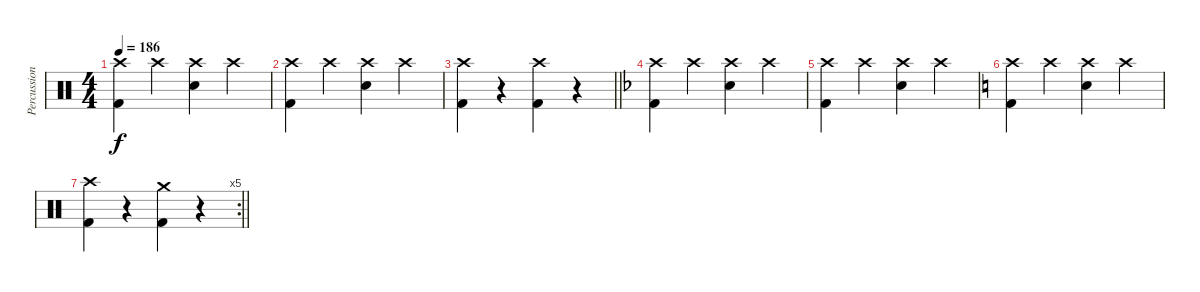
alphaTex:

\track ("Percussion" "Percussion") {instrument percussion}
\staff {score}
\articulation defaults
\ts (4 4)
\tempo 186
\clef neutral
\ks c
("Crash high (hit)" "Kick (hit) 2").4{dy f} "Crash high (hit)".4 ("Crash high (hit)" "Snare (hit) 2").4 "Crash high (hit)".4 |
("Crash high (hit)" "Kick (hit) 2").4 "Crash high (hit)".4 ("Crash high (hit)" "Snare (hit) 2").4 "Crash high (hit)".4 |
\barLineRight lightlight
("Crash high (hit)" "Kick (hit) 2").4 r.4 ("Crash high (hit)" "Kick (hit) 2").4 r.4 |
\ks f
("Crash high (hit)" "Kick (hit) 2").4 "Crash high (hit)".4 ("Crash high (hit)" "Snare (hit) 2").4 "Crash high (hit)".4 |
("Crash high (hit)" "Kick (hit) 2").4 "Crash high (hit)".4 ("Crash high (hit)" "Snare (hit) 2").4 "Crash high (hit)".4 |
\ks c
("Crash high (hit)" "Kick (hit) 2").4 "Crash high (hit)".4 ("Crash high (hit)" "Snare (hit) 2").4 "Crash high (hit)".4 |
\rc 5
\barLineRight lightlight
("Crash high (hit)" "Kick (hit) 2").4 r.4 ("Crash medium (hit)" "Kick (hit) 2").4 r.4
